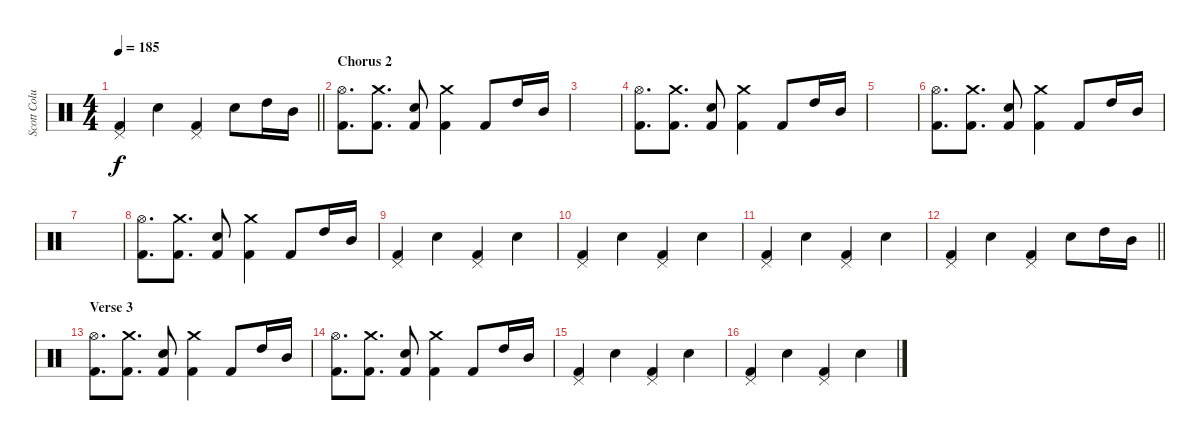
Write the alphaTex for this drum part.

\track ("Scott Columbus" "Scott Colu") {instrument percussion}
\staff {score}
\articulation defaults
\ts (4 4)
\tempo 185
\clef neutral
\barLineRight lightlight
\ks c
("Pedal Hi-Hat (hit)" "Kick (hit) 2").4{dy f} "Snare (hit) 2".4 ("Pedal Hi-Hat (hit)" "Kick (hit) 2").4 "Snare (hit) 2".8 "High Tom (hit)".16 "Mid Tom (hit)".16 |
\section ("" "Chorus 2")
("Hi-Hat (open)" "Kick (hit) 2").8{d} ("Crash medium (hit)" "Kick (hit) 2").8{d} ("Snare (hit) 2" "Kick (hit) 2").8 ("Crash medium (hit)" "Kick (hit) 2").4 "Kick (hit) 2".8 "High Tom (hit)".16 "Mid Tom (hit)".16 |
|
("Hi-Hat (open)" "Kick (hit) 2").8{d} ("Crash medium (hit)" "Kick (hit) 2").8{d} ("Snare (hit) 2" "Kick (hit) 2").8 ("Crash medium (hit)" "Kick (hit) 2").4 "Kick (hit) 2".8 "High Tom (hit)".16 "Mid Tom (hit)".16 |
|
("Hi-Hat (open)" "Kick (hit) 2").8{d} ("Crash medium (hit)" "Kick (hit) 2").8{d} ("Snare (hit) 2" "Kick (hit) 2").8 ("Crash medium (hit)" "Kick (hit) 2").4 "Kick (hit) 2".8 "High Tom (hit)".16 "Mid Tom (hit)".16 |
|
("Hi-Hat (open)" "Kick (hit) 2").8{d} ("Crash medium (hit)" "Kick (hit) 2").8{d} ("Snare (hit) 2" "Kick (hit) 2").8 ("Crash medium (hit)" "Kick (hit) 2").4 "Kick (hit) 2".8 "High Tom (hit)".16 "Mid Tom (hit)".16 |
("Pedal Hi-Hat (hit)" "Kick (hit) 2").4 "Snare (hit) 2".4 ("Pedal Hi-Hat (hit)" "Kick (hit) 2").4 "Snare (hit) 2".4 |
("Pedal Hi-Hat (hit)" "Kick (hit) 2").4 "Snare (hit) 2".4 ("Pedal Hi-Hat (hit)" "Kick (hit) 2").4 "Snare (hit) 2".4 |
("Pedal Hi-Hat (hit)" "Kick (hit) 2").4 "Snare (hit) 2".4 ("Pedal Hi-Hat (hit)" "Kick (hit) 2").4 "Snare (hit) 2".4 |
\barLineRight lightlight
("Pedal Hi-Hat (hit)" "Kick (hit) 2").4 "Snare (hit) 2".4 ("Pedal Hi-Hat (hit)" "Kick (hit) 2").4 "Snare (hit) 2".8 "High Tom (hit)".16 "Mid Tom (hit)".16 |
\section ("" "Verse 3")
("Hi-Hat (open)" "Kick (hit) 2").8{d} ("Crash medium (hit)" "Kick (hit) 2").8{d} ("Snare (hit) 2" "Kick (hit) 2").8 ("Crash medium (hit)" "Kick (hit) 2").4 "Kick (hit) 2".8 "High Tom (hit)".16 "Mid Tom (hit)".16 |
("Hi-Hat (open)" "Kick (hit) 2").8{d} ("Crash medium (hit)" "Kick (hit) 2").8{d} ("Snare (hit) 2" "Kick (hit) 2").8 ("Crash medium (hit)" "Kick (hit) 2").4 "Kick (hit) 2".8 "High Tom (hit)".16 "Mid Tom (hit)".16 |
("Pedal Hi-Hat (hit)" "Kick (hit) 2").4 "Snare (hit) 2".4 ("Pedal Hi-Hat (hit)" "Kick (hit) 2").4 "Snare (hit) 2".4 |
("Pedal Hi-Hat (hit)" "Kick (hit) 2").4 "Snare (hit) 2".4 ("Pedal Hi-Hat (hit)" "Kick (hit) 2").4 "Snare (hit) 2".4
